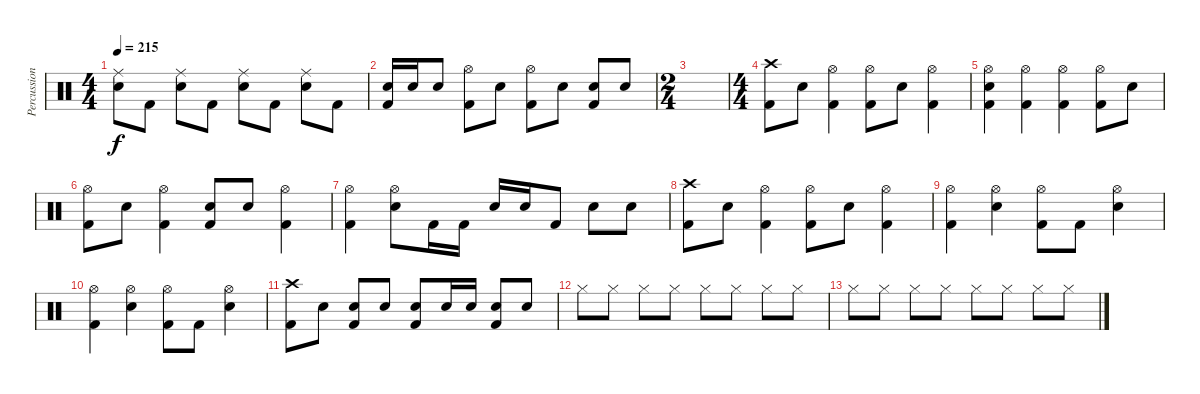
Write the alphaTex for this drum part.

\track ("Percussion" "Percussion") {instrument percussion}
\staff {score}
\articulation defaults
\ts (4 4)
\tempo 215
\clef neutral
\ks aminor
("Ride (middle)" "Snare (hit) 2").8{dy f} "Kick (hit) 2".8 ("Ride (middle)" "Snare (hit) 2").8 "Kick (hit) 2".8 ("Ride (middle)" "Snare (hit) 2").8 "Kick (hit) 2".8 ("Ride (middle)" "Snare (hit) 2").8 "Kick (hit) 2".8 |
("Snare (hit) 2" "Kick (hit) 2").16 "Snare (hit) 2".16 "Snare (hit) 2".8 ("Hi-Hat (open)" "Kick (hit) 2").8 "Snare (hit) 2".8 ("Hi-Hat (open)" "Kick (hit) 2").8 "Snare (hit) 2".8 ("Snare (hit) 2" "Kick (hit) 2").8 "Snare (hit) 2".8 |
\ts (2 4)
|
\ts (4 4)
("Crash high (hit)" "Kick (hit) 2").8 "Snare (hit) 2".8 ("Hi-Hat (open)" "Kick (hit) 2").4 ("Hi-Hat (open)" "Kick (hit) 2").8 "Snare (hit) 2".8 ("Hi-Hat (open)" "Kick (hit) 2").4 |
("Hi-Hat (open)" "Snare (hit) 2" "Kick (hit) 2").4 ("Hi-Hat (open)" "Kick (hit) 2").4 ("Hi-Hat (open)" "Kick (hit) 2").4 ("Hi-Hat (open)" "Kick (hit) 2").8 "Snare (hit) 2".8 |
("Hi-Hat (open)" "Kick (hit) 2").8 "Snare (hit) 2".8 ("Hi-Hat (open)" "Kick (hit) 2").4 ("Snare (hit) 2" "Kick (hit) 2").8 "Snare (hit) 2".8 ("Hi-Hat (open)" "Kick (hit) 2").4 |
("Hi-Hat (open)" "Kick (hit) 2").4 ("Hi-Hat (open)" "Snare (hit) 2").8 "Kick (hit) 2".16 "Kick (hit) 2".16 "Snare (hit) 2".16 "Snare (hit) 2".16 "Kick (hit) 2".8 "Snare (hit) 2".8 "Snare (hit) 2".8 |
("Crash high (hit)" "Kick (hit) 2").8 "Snare (hit) 2".8 ("Hi-Hat (open)" "Kick (hit) 2").4 ("Hi-Hat (open)" "Kick (hit) 2").8 "Snare (hit) 2".8 ("Hi-Hat (open)" "Kick (hit) 2").4 |
("Hi-Hat (open)" "Kick (hit) 2").4 ("Snare (hit) 2" "Hi-Hat (open)").4 ("Hi-Hat (open)" "Kick (hit) 2").8 "Kick (hit) 2".8 ("Hi-Hat (open)" "Snare (hit) 2").4 |
("Hi-Hat (open)" "Kick (hit) 2").4 ("Snare (hit) 2" "Hi-Hat (open)").4 ("Hi-Hat (open)" "Kick (hit) 2").8 "Kick (hit) 2".8 ("Hi-Hat (open)" "Snare (hit) 2").4 |
("Crash high (hit)" "Kick (hit) 2").8 "Snare (hit) 2".8 ("Snare (hit) 2" "Kick (hit) 2").8 "Snare (hit) 2".8 ("Snare (hit) 2" "Kick (hit) 2").8 "Snare (hit) 2".16 "Snare (hit) 2".16 ("Snare (hit) 2" "Kick (hit) 2").8 "Snare (hit) 2".8 |
"Hi-Hat (closed)".8 "Hi-Hat (closed)".8 "Hi-Hat (closed)".8 "Hi-Hat (closed)".8 "Hi-Hat (closed)".8 "Hi-Hat (closed)".8 "Hi-Hat (closed)".8 "Hi-Hat (closed)".8 |
"Hi-Hat (closed)".8 "Hi-Hat (closed)".8 "Hi-Hat (closed)".8 "Hi-Hat (closed)".8 "Hi-Hat (closed)".8 "Hi-Hat (closed)".8 "Hi-Hat (closed)".8 "Hi-Hat (closed)".8
